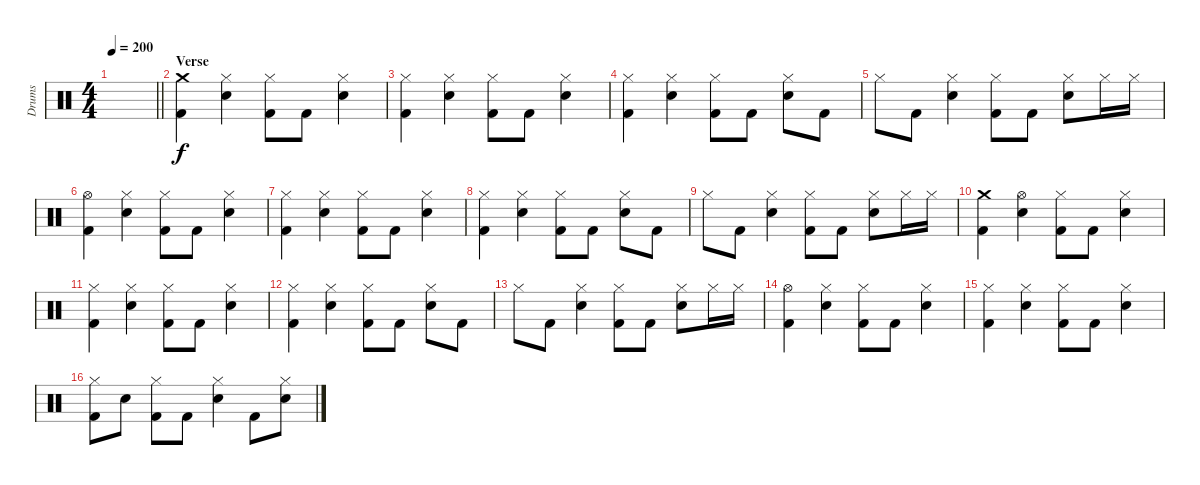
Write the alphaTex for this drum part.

\track ("Drums" "Drums") {instrument percussion}
\staff {score}
\articulation defaults
\ts (4 4)
\tempo 200
\clef neutral
\barLineRight lightlight
\ks c
|
\section ("" "Verse")
("Crash medium (hit)" "Kick (hit) 2").4 ("Hi-Hat (closed)" "Snare (hit) 2").4 ("Hi-Hat (closed)" "Kick (hit) 2").8 "Kick (hit) 2".8 ("Hi-Hat (closed)" "Snare (hit) 2").4 |
("Hi-Hat (closed)" "Kick (hit) 2").4 ("Hi-Hat (closed)" "Snare (hit) 2").4 ("Hi-Hat (closed)" "Kick (hit) 2").8 "Kick (hit) 2".8 ("Hi-Hat (closed)" "Snare (hit) 2").4 |
("Hi-Hat (closed)" "Kick (hit) 2").4 ("Hi-Hat (closed)" "Snare (hit) 2").4 ("Hi-Hat (closed)" "Kick (hit) 2").8 "Kick (hit) 2".8 ("Hi-Hat (closed)" "Snare (hit) 2").8 "Kick (hit) 2".8 |
"Hi-Hat (closed)".8 "Kick (hit) 2".8 ("Hi-Hat (closed)" "Snare (hit) 2").4 ("Hi-Hat (closed)" "Kick (hit) 2").8 "Kick (hit) 2".8 ("Hi-Hat (closed)" "Snare (hit) 2").8 "Hi-Hat (closed)".16 "Hi-Hat (closed)".16 |
("Hi-Hat (open)" "Kick (hit) 2").4 ("Hi-Hat (closed)" "Snare (hit) 2").4 ("Hi-Hat (closed)" "Kick (hit) 2").8 "Kick (hit) 2".8 ("Hi-Hat (closed)" "Snare (hit) 2").4 |
("Hi-Hat (closed)" "Kick (hit) 2").4 ("Hi-Hat (closed)" "Snare (hit) 2").4 ("Hi-Hat (closed)" "Kick (hit) 2").8 "Kick (hit) 2".8 ("Hi-Hat (closed)" "Snare (hit) 2").4 |
("Hi-Hat (closed)" "Kick (hit) 2").4 ("Hi-Hat (closed)" "Snare (hit) 2").4 ("Hi-Hat (closed)" "Kick (hit) 2").8 "Kick (hit) 2".8 ("Hi-Hat (closed)" "Snare (hit) 2").8 "Kick (hit) 2".8 |
"Hi-Hat (closed)".8 "Kick (hit) 2".8 ("Hi-Hat (closed)" "Snare (hit) 2").4 ("Hi-Hat (closed)" "Kick (hit) 2").8 "Kick (hit) 2".8 ("Hi-Hat (closed)" "Snare (hit) 2").8 "Hi-Hat (closed)".16 "Hi-Hat (closed)".16 |
("Crash medium (hit)" "Kick (hit) 2").4 ("Hi-Hat (open)" "Snare (hit) 2").4 ("Hi-Hat (closed)" "Kick (hit) 2").8 "Kick (hit) 2".8 ("Hi-Hat (closed)" "Snare (hit) 2").4 |
("Hi-Hat (closed)" "Kick (hit) 2").4 ("Hi-Hat (closed)" "Snare (hit) 2").4 ("Hi-Hat (closed)" "Kick (hit) 2").8 "Kick (hit) 2".8 ("Hi-Hat (closed)" "Snare (hit) 2").4 |
("Hi-Hat (closed)" "Kick (hit) 2").4 ("Hi-Hat (closed)" "Snare (hit) 2").4 ("Hi-Hat (closed)" "Kick (hit) 2").8 "Kick (hit) 2".8 ("Hi-Hat (closed)" "Snare (hit) 2").8 "Kick (hit) 2".8 |
"Hi-Hat (closed)".8 "Kick (hit) 2".8 ("Hi-Hat (closed)" "Snare (hit) 2").4 ("Hi-Hat (closed)" "Kick (hit) 2").8 "Kick (hit) 2".8 ("Hi-Hat (closed)" "Snare (hit) 2").8 "Hi-Hat (closed)".16 "Hi-Hat (closed)".16 |
("Hi-Hat (open)" "Kick (hit) 2").4 ("Hi-Hat (closed)" "Snare (hit) 2").4 ("Hi-Hat (closed)" "Kick (hit) 2").8 "Kick (hit) 2".8 ("Hi-Hat (closed)" "Snare (hit) 2").4 |
("Hi-Hat (closed)" "Kick (hit) 2").4 ("Hi-Hat (closed)" "Snare (hit) 2").4 ("Hi-Hat (closed)" "Kick (hit) 2").8 "Kick (hit) 2".8 ("Hi-Hat (closed)" "Snare (hit) 2").4 |
("Hi-Hat (closed)" "Kick (hit) 2").8 "Snare (hit) 2".8 ("Hi-Hat (closed)" "Kick (hit) 2").8 "Kick (hit) 2".8 ("Hi-Hat (closed)" "Snare (hit) 2").4 "Kick (hit) 2".8 ("Hi-Hat (closed)" "Snare (hit) 2").8
